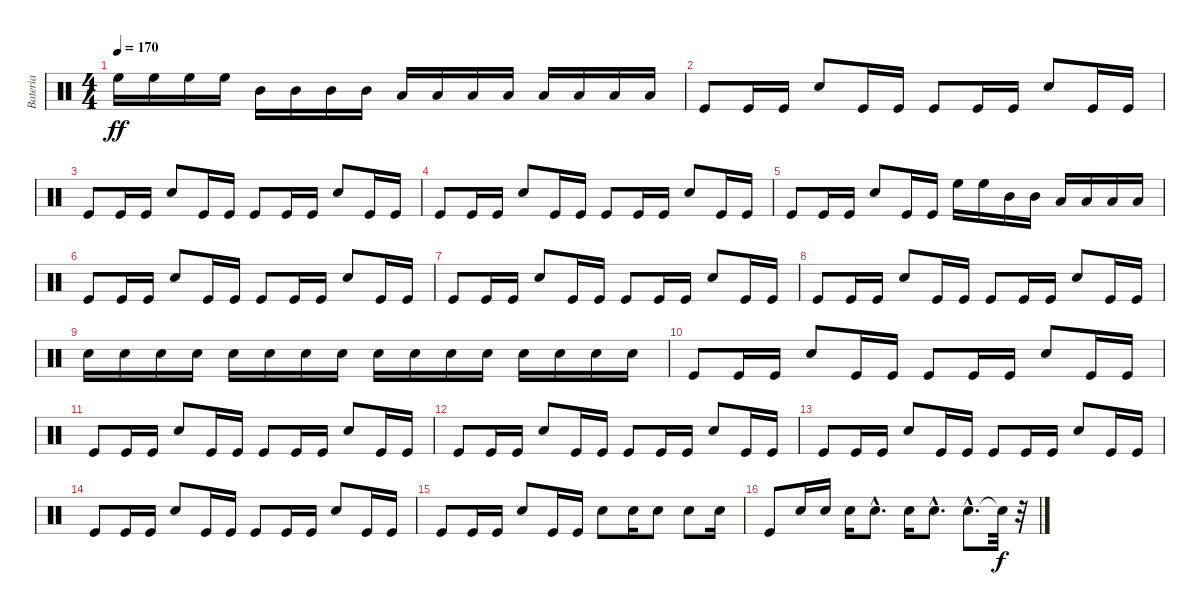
\track ("Bateria" "Bateria") {instrument percussion}
\staff {score}
\articulation defaults
\ts (4 4)
\tempo 170
\clef neutral
\ks c "High Floor Tom (hit)".16{dy ff} "High Floor Tom (hit)".16 "High Floor Tom (hit)".16 "High Floor Tom (hit)".16 "Mid Tom (hit)".16 "Mid Tom (hit)".16 "Mid Tom (hit)".16 "Mid Tom (hit)".16 "Low Tom (hit)".16 "Low Tom (hit)".16 "Low Tom (hit)".16 "Low Tom (hit)".16 "Low Floor Tom (hit)".16 "Low Floor Tom (hit)".16 "Low Floor Tom (hit)".16 "Low Floor Tom (hit)".16
|
"Kick (hit)".8 "Kick (hit)".16 "Kick (hit)".16 "Electric Snare (hit)".8 "Kick (hit)".16 "Kick (hit)".16 "Kick (hit)".8 "Kick (hit)".16 "Kick (hit)".16 "Electric Snare (hit)".8 "Kick (hit)".16 "Kick (hit)".16 |
"Kick (hit)".8 "Kick (hit)".16 "Kick (hit)".16 "Electric Snare (hit)".8 "Kick (hit)".16 "Kick (hit)".16 "Kick (hit)".8 "Kick (hit)".16 "Kick (hit)".16 "Electric Snare (hit)".8 "Kick (hit)".16 "Kick (hit)".16 |
"Kick (hit)".8 "Kick (hit)".16 "Kick (hit)".16 "Electric Snare (hit)".8 "Kick (hit)".16 "Kick (hit)".16 "Kick (hit)".8 "Kick (hit)".16 "Kick (hit)".16 "Electric Snare (hit)".8 "Kick (hit)".16 "Kick (hit)".16 |
"Kick (hit)".8 "Kick (hit)".16 "Kick (hit)".16 "Electric Snare (hit)".8 "Kick (hit)".16 "Kick (hit)".16 "High Floor Tom (hit)".16 "High Floor Tom (hit)".16 "Mid Tom (hit)".16 "Mid Tom (hit)".16 "Low Tom (hit)".16 "Low Tom (hit)".16 "Low Floor Tom (hit)".16 "Low Floor Tom (hit)".16 |
"Kick (hit)".8 "Kick (hit)".16 "Kick (hit)".16 "Electric Snare (hit)".8 "Kick (hit)".16 "Kick (hit)".16 "Kick (hit)".8 "Kick (hit)".16 "Kick (hit)".16 "Electric Snare (hit)".8 "Kick (hit)".16 "Kick (hit)".16 |
"Kick (hit)".8 "Kick (hit)".16 "Kick (hit)".16 "Electric Snare (hit)".8 "Kick (hit)".16 "Kick (hit)".16 "Kick (hit)".8 "Kick (hit)".16 "Kick (hit)".16 "Electric Snare (hit)".8 "Kick (hit)".16 "Kick (hit)".16 |
"Kick (hit)".8 "Kick (hit)".16 "Kick (hit)".16 "Electric Snare (hit)".8 "Kick (hit)".16 "Kick (hit)".16 "Kick (hit)".8 "Kick (hit)".16 "Kick (hit)".16 "Electric Snare (hit)".8 "Kick (hit)".16 "Kick (hit)".16 |
"Electric Snare (hit)".16 "Electric Snare (hit)".16 "Electric Snare (hit)".16 "Electric Snare (hit)".16 "Electric Snare (hit)".16 "Electric Snare (hit)".16 "Electric Snare (hit)".16 "Electric Snare (hit)".16 "Electric Snare (hit)".16 "Electric Snare (hit)".16 "Electric Snare (hit)".16 "Electric Snare (hit)".16 "Electric Snare (hit)".16 "Electric Snare (hit)".16 "Electric Snare (hit)".16 "Electric Snare (hit)".16 |
"Kick (hit)".8 "Kick (hit)".16 "Kick (hit)".16 "Electric Snare (hit)".8 "Kick (hit)".16 "Kick (hit)".16 "Kick (hit)".8 "Kick (hit)".16 "Kick (hit)".16 "Electric Snare (hit)".8 "Kick (hit)".16 "Kick (hit)".16 |
"Kick (hit)".8 "Kick (hit)".16 "Kick (hit)".16 "Electric Snare (hit)".8 "Kick (hit)".16 "Kick (hit)".16 "Kick (hit)".8 "Kick (hit)".16 "Kick (hit)".16 "Electric Snare (hit)".8 "Kick (hit)".16 "Kick (hit)".16 |
"Kick (hit)".8 "Kick (hit)".16 "Kick (hit)".16 "Electric Snare (hit)".8 "Kick (hit)".16 "Kick (hit)".16 "Kick (hit)".8 "Kick (hit)".16 "Kick (hit)".16 "Electric Snare (hit)".8 "Kick (hit)".16 "Kick (hit)".16 |
"Kick (hit)".8 "Kick (hit)".16 "Kick (hit)".16 "Electric Snare (hit)".8 "Kick (hit)".16 "Kick (hit)".16 "Kick (hit)".8 "Kick (hit)".16 "Kick (hit)".16 "Electric Snare (hit)".8 "Kick (hit)".16 "Kick (hit)".16 |
"Kick (hit)".8 "Kick (hit)".16 "Kick (hit)".16 "Electric Snare (hit)".8 "Kick (hit)".16 "Kick (hit)".16 "Kick (hit)".8 "Kick (hit)".16 "Kick (hit)".16 "Electric Snare (hit)".8 "Kick (hit)".16 "Kick (hit)".16 |
"Kick (hit)".8 "Kick (hit)".16 "Kick (hit)".16 "Electric Snare (hit)".8 "Kick (hit)".16 "Kick (hit)".16 "Electric Snare (hit)".8 "Electric Snare (hit)".16 "Electric Snare (hit)".8 "Electric Snare (hit)".8 "Electric Snare (hit)".16 |
"Kick (hit)".8 "Electric Snare (hit)".16 "Electric Snare (hit)".16 "Electric Snare (hit)".16 "Electric Snare (hit)"{hac}.8{d} "Electric Snare (hit)".16 "Electric Snare (hit)"{hac}.8{d} "Electric Snare (hit)"{hac}.8{d} "Snare (hit)"{t}.32{dy f} r.32
